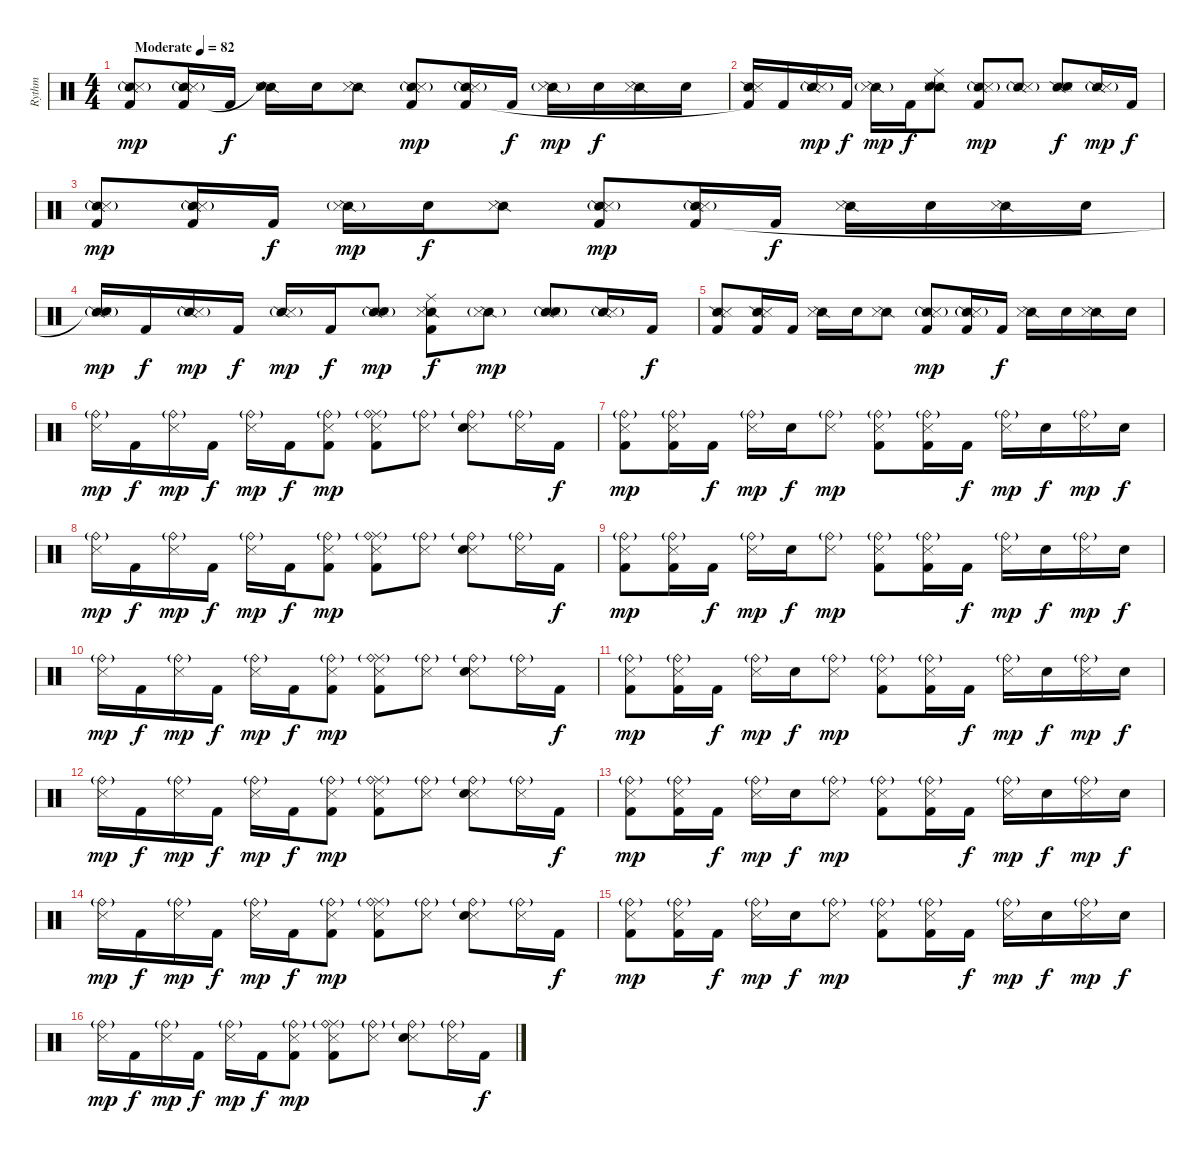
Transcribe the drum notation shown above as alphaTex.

\track ("Rythm" "Rythm") {instrument percussion}
\staff {score}
\articulation defaults
\ts (4 4)
\tempo (82 "Moderate")
\clef neutral
\ks c
("Snare (side stick) 2" "Metronome (hit)"{g} "Kick (hit) 2").8{dy mp} ("Snare (side stick) 2" "Metronome (hit)"{g} "Kick (hit) 2").16 "Kick (hit) 2".16{dy f} ("Snare (side stick) 2" "Metronome (hit)" "Snare (hit)"{t}).16 "Electric Snare (hit)".16 ("Snare (side stick) 2" "Metronome (hit)").8 ("Snare (side stick) 2" "Metronome (hit)"{g} "Kick (hit) 2").8{dy mp} ("Snare (side stick) 2" "Metronome (hit)"{g} "Kick (hit) 2").16 "Kick (hit) 2".16{dy f} ("Snare (side stick) 2" "Metronome (hit)"{g}).16{dy mp} "Electric Snare (hit)".16{dy f} ("Snare (side stick) 2" "Metronome (hit)").16 "Electric Snare (hit)".16 |
("Snare (side stick) 2" "Metronome (hit)" "Kick (hit) 2"{t}).16 "Kick (hit) 2".16 ("Snare (side stick) 2" "Metronome (hit)"{g}).16{dy mp} "Kick (hit) 2".16{dy f} ("Snare (side stick) 2" "Metronome (hit)"{g}).16{dy mp} "Kick (hit) 2".16{dy f} ("Ride (middle)" "Snare (side stick) 2" "Metronome (hit)" "Electric Snare (hit)").8 ("Snare (side stick) 2" "Metronome (hit)"{g} "Kick (hit) 2").8{dy mp} ("Snare (side stick) 2" "Metronome (hit)"{g}).8 ("Snare (side stick) 2" "Metronome (hit)" "Electric Snare (hit)").8{dy f} ("Snare (side stick) 2" "Metronome (hit)"{g}).16{dy mp} "Kick (hit) 2".16{dy f} |
("Snare (side stick) 2" "Metronome (hit)"{g} "Kick (hit) 2").8{dy mp} ("Snare (side stick) 2" "Metronome (hit)"{g} "Kick (hit) 2").16 "Kick (hit) 2".16{dy f} ("Snare (side stick) 2" "Metronome (hit)"{g}).16{dy mp} "Electric Snare (hit)".16{dy f} ("Snare (side stick) 2" "Metronome (hit)").8 ("Snare (side stick) 2" "Metronome (hit)"{g} "Kick (hit) 2").8{dy mp} ("Snare (side stick) 2" "Metronome (hit)"{g} "Kick (hit) 2").16 "Kick (hit) 2".16{dy f} ("Snare (side stick) 2" "Metronome (hit)").16 "Electric Snare (hit)".16 ("Snare (side stick) 2" "Metronome (hit)").16 "Electric Snare (hit)".16 |
("Snare (side stick) 2" "Metronome (hit)"{g} "Snare (hit)"{t}).16{dy mp} "Kick (hit) 2".16{dy f} ("Snare (side stick) 2" "Metronome (hit)"{g}).16{dy mp} "Kick (hit) 2".16{dy f} ("Snare (side stick) 2" "Metronome (hit)"{g}).16{dy mp} "Kick (hit) 2".16{dy f} ("Snare (side stick) 2" "Metronome (hit)"{g} "Electric Snare (hit)").8{dy mp} ("Ride (middle)" "Snare (side stick) 2" "Metronome (hit)" "Kick (hit) 2").8{dy f} ("Snare (side stick) 2" "Metronome (hit)"{g}).8{dy mp} ("Snare (side stick) 2" "Metronome (hit)"{g} "Electric Snare (hit)").8 ("Snare (side stick) 2" "Metronome (hit)"{g}).16 "Kick (hit) 2".16{dy f} |
("Snare (side stick) 2" "Metronome (hit)" "Kick (hit) 2").8 ("Snare (side stick) 2" "Metronome (hit)" "Kick (hit) 2").16 "Kick (hit) 2".16 ("Snare (side stick) 2" "Metronome (hit)").16 "Electric Snare (hit)".16 ("Snare (side stick) 2" "Metronome (hit)").8 ("Snare (side stick) 2" "Metronome (hit)"{g} "Kick (hit) 2").8{dy mp} ("Snare (side stick) 2" "Metronome (hit)"{g} "Kick (hit) 2").16 "Kick (hit) 2".16{dy f} ("Snare (side stick) 2" "Metronome (hit)").16 "Electric Snare (hit)".16 ("Snare (side stick) 2" "Metronome (hit)").16 "Electric Snare (hit)".16 |
("Ride (bell)"{g} "Metronome (hit)").16{dy mp} "Kick (hit) 2".16{dy f} ("Ride (bell)"{g} "Metronome (hit)").16{dy mp} "Kick (hit) 2".16{dy f} ("Ride (bell)"{g} "Metronome (hit)").16{dy mp} "Kick (hit) 2".16{dy f} ("Ride (bell)"{g} "Metronome (hit)" "Kick (hit) 2").8{dy mp} ("Ride (middle)" "Ride (bell)"{g} "Metronome (hit)" "Kick (hit) 2").8 ("Ride (bell)"{g} "Metronome (hit)").8 ("Ride (bell)"{g} "Metronome (hit)" "Electric Snare (hit)").8 ("Ride (bell)"{g} "Metronome (hit)").16 "Kick (hit) 2".16{dy f} |
("Ride (bell)"{g} "Metronome (hit)" "Kick (hit) 2").8{dy mp} ("Ride (bell)"{g} "Metronome (hit)" "Kick (hit) 2").16 "Kick (hit) 2".16{dy f} ("Ride (bell)"{g} "Metronome (hit)").16{dy mp} "Electric Snare (hit)".16{dy f} ("Ride (bell)"{g} "Metronome (hit)").8{dy mp} ("Ride (bell)"{g} "Metronome (hit)" "Kick (hit) 2").8 ("Ride (bell)"{g} "Metronome (hit)" "Kick (hit) 2").16 "Kick (hit) 2".16{dy f} ("Ride (bell)"{g} "Metronome (hit)").16{dy mp} "Electric Snare (hit)".16{dy f} ("Ride (bell)"{g} "Metronome (hit)").16{dy mp} "Electric Snare (hit)".16{dy f} |
("Ride (bell)"{g} "Metronome (hit)").16{dy mp} "Kick (hit) 2".16{dy f} ("Ride (bell)"{g} "Metronome (hit)").16{dy mp} "Kick (hit) 2".16{dy f} ("Ride (bell)"{g} "Metronome (hit)").16{dy mp} "Kick (hit) 2".16{dy f} ("Ride (bell)"{g} "Metronome (hit)" "Kick (hit) 2").8{dy mp} ("Ride (middle)" "Ride (bell)"{g} "Metronome (hit)" "Kick (hit) 2").8 ("Ride (bell)"{g} "Metronome (hit)").8 ("Ride (bell)"{g} "Metronome (hit)" "Electric Snare (hit)").8 ("Ride (bell)"{g} "Metronome (hit)").16 "Kick (hit) 2".16{dy f} |
("Ride (bell)"{g} "Metronome (hit)" "Kick (hit) 2").8{dy mp} ("Ride (bell)"{g} "Metronome (hit)" "Kick (hit) 2").16 "Kick (hit) 2".16{dy f} ("Ride (bell)"{g} "Metronome (hit)").16{dy mp} "Electric Snare (hit)".16{dy f} ("Ride (bell)"{g} "Metronome (hit)").8{dy mp} ("Ride (bell)"{g} "Metronome (hit)" "Kick (hit) 2").8 ("Ride (bell)"{g} "Metronome (hit)" "Kick (hit) 2").16 "Kick (hit) 2".16{dy f} ("Ride (bell)"{g} "Metronome (hit)").16{dy mp} "Electric Snare (hit)".16{dy f} ("Ride (bell)"{g} "Metronome (hit)").16{dy mp} "Electric Snare (hit)".16{dy f} |
("Ride (bell)"{g} "Metronome (hit)").16{dy mp} "Kick (hit) 2".16{dy f} ("Ride (bell)"{g} "Metronome (hit)").16{dy mp} "Kick (hit) 2".16{dy f} ("Ride (bell)"{g} "Metronome (hit)").16{dy mp} "Kick (hit) 2".16{dy f} ("Ride (bell)"{g} "Metronome (hit)" "Kick (hit) 2").8{dy mp} ("Ride (middle)" "Ride (bell)"{g} "Metronome (hit)" "Kick (hit) 2").8 ("Ride (bell)"{g} "Metronome (hit)").8 ("Ride (bell)"{g} "Metronome (hit)" "Electric Snare (hit)").8 ("Ride (bell)"{g} "Metronome (hit)").16 "Kick (hit) 2".16{dy f} |
("Ride (bell)"{g} "Metronome (hit)" "Kick (hit) 2").8{dy mp} ("Ride (bell)"{g} "Metronome (hit)" "Kick (hit) 2").16 "Kick (hit) 2".16{dy f} ("Ride (bell)"{g} "Metronome (hit)").16{dy mp} "Electric Snare (hit)".16{dy f} ("Ride (bell)"{g} "Metronome (hit)").8{dy mp} ("Ride (bell)"{g} "Metronome (hit)" "Kick (hit) 2").8 ("Ride (bell)"{g} "Metronome (hit)" "Kick (hit) 2").16 "Kick (hit) 2".16{dy f} ("Ride (bell)"{g} "Metronome (hit)").16{dy mp} "Electric Snare (hit)".16{dy f} ("Ride (bell)"{g} "Metronome (hit)").16{dy mp} "Electric Snare (hit)".16{dy f} |
("Ride (bell)"{g} "Metronome (hit)").16{dy mp} "Kick (hit) 2".16{dy f} ("Ride (bell)"{g} "Metronome (hit)").16{dy mp} "Kick (hit) 2".16{dy f} ("Ride (bell)"{g} "Metronome (hit)").16{dy mp} "Kick (hit) 2".16{dy f} ("Ride (bell)"{g} "Metronome (hit)" "Kick (hit) 2").8{dy mp} ("Ride (middle)" "Ride (bell)"{g} "Metronome (hit)" "Kick (hit) 2").8 ("Ride (bell)"{g} "Metronome (hit)").8 ("Ride (bell)"{g} "Metronome (hit)" "Electric Snare (hit)").8 ("Ride (bell)"{g} "Metronome (hit)").16 "Kick (hit) 2".16{dy f} |
("Ride (bell)"{g} "Metronome (hit)" "Kick (hit) 2").8{dy mp} ("Ride (bell)"{g} "Metronome (hit)" "Kick (hit) 2").16 "Kick (hit) 2".16{dy f} ("Ride (bell)"{g} "Metronome (hit)").16{dy mp} "Electric Snare (hit)".16{dy f} ("Ride (bell)"{g} "Metronome (hit)").8{dy mp} ("Ride (bell)"{g} "Metronome (hit)" "Kick (hit) 2").8 ("Ride (bell)"{g} "Metronome (hit)" "Kick (hit) 2").16 "Kick (hit) 2".16{dy f} ("Ride (bell)"{g} "Metronome (hit)").16{dy mp} "Electric Snare (hit)".16{dy f} ("Ride (bell)"{g} "Metronome (hit)").16{dy mp} "Electric Snare (hit)".16{dy f} |
("Ride (bell)"{g} "Metronome (hit)").16{dy mp} "Kick (hit) 2".16{dy f} ("Ride (bell)"{g} "Metronome (hit)").16{dy mp} "Kick (hit) 2".16{dy f} ("Ride (bell)"{g} "Metronome (hit)").16{dy mp} "Kick (hit) 2".16{dy f} ("Ride (bell)"{g} "Metronome (hit)" "Kick (hit) 2").8{dy mp} ("Ride (middle)" "Ride (bell)"{g} "Metronome (hit)" "Kick (hit) 2").8 ("Ride (bell)"{g} "Metronome (hit)").8 ("Ride (bell)"{g} "Metronome (hit)" "Electric Snare (hit)").8 ("Ride (bell)"{g} "Metronome (hit)").16 "Kick (hit) 2".16{dy f} |
("Ride (bell)"{g} "Metronome (hit)" "Kick (hit) 2").8{dy mp} ("Ride (bell)"{g} "Metronome (hit)" "Kick (hit) 2").16 "Kick (hit) 2".16{dy f} ("Ride (bell)"{g} "Metronome (hit)").16{dy mp} "Electric Snare (hit)".16{dy f} ("Ride (bell)"{g} "Metronome (hit)").8{dy mp} ("Ride (bell)"{g} "Metronome (hit)" "Kick (hit) 2").8 ("Ride (bell)"{g} "Metronome (hit)" "Kick (hit) 2").16 "Kick (hit) 2".16{dy f} ("Ride (bell)"{g} "Metronome (hit)").16{dy mp} "Electric Snare (hit)".16{dy f} ("Ride (bell)"{g} "Metronome (hit)").16{dy mp} "Electric Snare (hit)".16{dy f} |
("Ride (bell)"{g} "Metronome (hit)").16{dy mp} "Kick (hit) 2".16{dy f} ("Ride (bell)"{g} "Metronome (hit)").16{dy mp} "Kick (hit) 2".16{dy f} ("Ride (bell)"{g} "Metronome (hit)").16{dy mp} "Kick (hit) 2".16{dy f} ("Ride (bell)"{g} "Metronome (hit)" "Kick (hit) 2").8{dy mp} ("Ride (middle)" "Ride (bell)"{g} "Metronome (hit)" "Kick (hit) 2").8 ("Ride (bell)"{g} "Metronome (hit)").8 ("Ride (bell)"{g} "Metronome (hit)" "Electric Snare (hit)").8 ("Ride (bell)"{g} "Metronome (hit)").16 "Kick (hit) 2".16{dy f}
